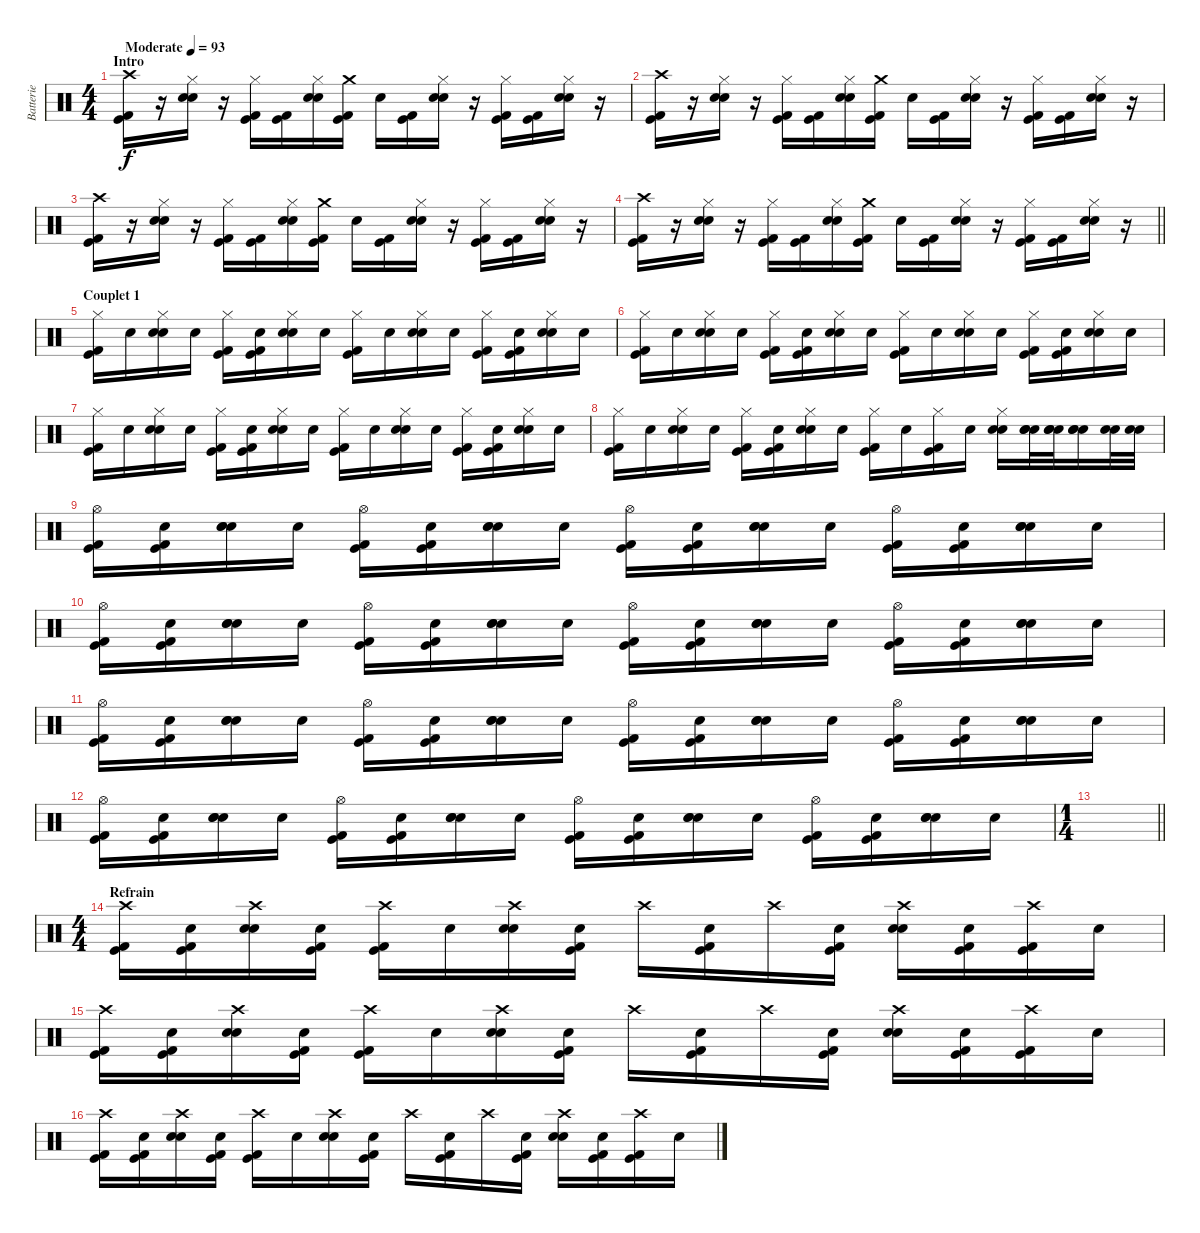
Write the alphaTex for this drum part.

\track ("Batterie" "Batterie") {instrument percussion}
\staff {score}
\articulation defaults
\ts (4 4)
\section ("" "Intro")
\tempo (93 "Moderate")
\clef neutral
\ks c
("Crash high (hit)" "Kick (hit)" "Kick (hit) 2").16{dy f} r.16 ("Hi-Hat (closed)" "Electric Snare (hit)" "Snare (hit) 2").16 r.16 ("Hi-Hat (closed)" "Kick (hit)" "Kick (hit) 2").16 ("Kick (hit)" "Kick (hit) 2").16 ("Hi-Hat (closed)" "Electric Snare (hit)" "Snare (hit) 2").16 ("Crash medium (hit)" "Kick (hit)" "Kick (hit) 2").16 "Snare (hit)".16 ("Kick (hit)" "Kick (hit) 2").16 ("Hi-Hat (closed)" "Electric Snare (hit)" "Snare (hit) 2").16 r.16 ("Hi-Hat (closed)" "Kick (hit)" "Kick (hit) 2").16 ("Kick (hit)" "Kick (hit) 2").16 ("Hi-Hat (closed)" "Electric Snare (hit)" "Snare (hit) 2").16 r.16 |
("Crash high (hit)" "Kick (hit)" "Kick (hit) 2").16 r.16 ("Hi-Hat (closed)" "Electric Snare (hit)" "Snare (hit) 2").16 r.16 ("Hi-Hat (closed)" "Kick (hit)" "Kick (hit) 2").16 ("Kick (hit)" "Kick (hit) 2").16 ("Hi-Hat (closed)" "Electric Snare (hit)" "Snare (hit) 2").16 ("Crash medium (hit)" "Kick (hit)" "Kick (hit) 2").16 "Snare (hit)".16 ("Kick (hit)" "Kick (hit) 2").16 ("Hi-Hat (closed)" "Electric Snare (hit)" "Snare (hit) 2").16 r.16 ("Hi-Hat (closed)" "Kick (hit)" "Kick (hit) 2").16 ("Kick (hit)" "Kick (hit) 2").16 ("Hi-Hat (closed)" "Electric Snare (hit)" "Snare (hit) 2").16 r.16 |
("Crash high (hit)" "Kick (hit)" "Kick (hit) 2").16 r.16 ("Hi-Hat (closed)" "Electric Snare (hit)" "Snare (hit) 2").16 r.16 ("Hi-Hat (closed)" "Kick (hit)" "Kick (hit) 2").16 ("Kick (hit)" "Kick (hit) 2").16 ("Hi-Hat (closed)" "Electric Snare (hit)" "Snare (hit) 2").16 ("Crash medium (hit)" "Kick (hit)" "Kick (hit) 2").16 "Snare (hit)".16 ("Kick (hit)" "Kick (hit) 2").16 ("Hi-Hat (closed)" "Electric Snare (hit)" "Snare (hit) 2").16 r.16 ("Hi-Hat (closed)" "Kick (hit)" "Kick (hit) 2").16 ("Kick (hit)" "Kick (hit) 2").16 ("Hi-Hat (closed)" "Electric Snare (hit)" "Snare (hit) 2").16 r.16 |
\barLineRight lightlight
("Crash high (hit)" "Kick (hit)" "Kick (hit) 2").16 r.16 ("Hi-Hat (closed)" "Electric Snare (hit)" "Snare (hit) 2").16 r.16 ("Hi-Hat (closed)" "Kick (hit)" "Kick (hit) 2").16 ("Kick (hit)" "Kick (hit) 2").16 ("Hi-Hat (closed)" "Electric Snare (hit)" "Snare (hit) 2").16 ("Crash medium (hit)" "Kick (hit)" "Kick (hit) 2").16 "Snare (hit)".16 ("Kick (hit)" "Kick (hit) 2").16 ("Hi-Hat (closed)" "Electric Snare (hit)" "Snare (hit) 2").16 r.16 ("Hi-Hat (closed)" "Kick (hit)" "Kick (hit) 2").16 ("Kick (hit)" "Kick (hit) 2").16 ("Hi-Hat (closed)" "Electric Snare (hit)" "Snare (hit) 2").16 r.16 |
\section ("" "Couplet 1")
("Hi-Hat (closed)" "Kick (hit)" "Kick (hit) 2").16 "Snare (hit)".16 ("Hi-Hat (closed)" "Electric Snare (hit)" "Snare (hit) 2").16 "Snare (hit)".16 ("Hi-Hat (closed)" "Kick (hit)" "Kick (hit) 2").16 ("Snare (hit)" "Kick (hit)" "Kick (hit) 2").16 ("Hi-Hat (closed)" "Electric Snare (hit)" "Snare (hit) 2").16 "Snare (hit)".16 ("Hi-Hat (closed)" "Kick (hit)" "Kick (hit) 2").16 "Snare (hit)".16 ("Hi-Hat (closed)" "Electric Snare (hit)" "Snare (hit) 2").16 "Snare (hit)".16 ("Hi-Hat (closed)" "Kick (hit)" "Kick (hit) 2").16 ("Snare (hit)" "Kick (hit)" "Kick (hit) 2").16 ("Hi-Hat (closed)" "Electric Snare (hit)" "Snare (hit) 2").16 "Snare (hit)".16 |
("Hi-Hat (closed)" "Kick (hit)" "Kick (hit) 2").16 "Snare (hit)".16 ("Hi-Hat (closed)" "Electric Snare (hit)" "Snare (hit) 2").16 "Snare (hit)".16 ("Hi-Hat (closed)" "Kick (hit)" "Kick (hit) 2").16 ("Snare (hit)" "Kick (hit)" "Kick (hit) 2").16 ("Hi-Hat (closed)" "Electric Snare (hit)" "Snare (hit) 2").16 "Snare (hit)".16 ("Hi-Hat (closed)" "Kick (hit)" "Kick (hit) 2").16 "Snare (hit)".16 ("Hi-Hat (closed)" "Electric Snare (hit)" "Snare (hit) 2").16 "Snare (hit)".16 ("Hi-Hat (closed)" "Kick (hit)" "Kick (hit) 2").16 ("Snare (hit)" "Kick (hit)" "Kick (hit) 2").16 ("Hi-Hat (closed)" "Electric Snare (hit)" "Snare (hit) 2").16 "Snare (hit)".16 |
("Hi-Hat (closed)" "Kick (hit)" "Kick (hit) 2").16 "Snare (hit)".16 ("Hi-Hat (closed)" "Electric Snare (hit)" "Snare (hit) 2").16 "Snare (hit)".16 ("Hi-Hat (closed)" "Kick (hit)" "Kick (hit) 2").16 ("Snare (hit)" "Kick (hit)" "Kick (hit) 2").16 ("Hi-Hat (closed)" "Electric Snare (hit)" "Snare (hit) 2").16 "Snare (hit)".16 ("Hi-Hat (closed)" "Kick (hit)" "Kick (hit) 2").16 "Snare (hit)".16 ("Hi-Hat (closed)" "Electric Snare (hit)" "Snare (hit) 2").16 "Snare (hit)".16 ("Hi-Hat (closed)" "Kick (hit)" "Kick (hit) 2").16 ("Snare (hit)" "Kick (hit)" "Kick (hit) 2").16 ("Hi-Hat (closed)" "Electric Snare (hit)" "Snare (hit) 2").16 "Snare (hit)".16 |
("Hi-Hat (closed)" "Kick (hit)" "Kick (hit) 2").16 "Snare (hit)".16 ("Hi-Hat (closed)" "Electric Snare (hit)" "Snare (hit) 2").16 "Snare (hit)".16 ("Hi-Hat (closed)" "Kick (hit)" "Kick (hit) 2").16 ("Snare (hit)" "Kick (hit)" "Kick (hit) 2").16 ("Hi-Hat (closed)" "Electric Snare (hit)" "Snare (hit) 2").16 "Snare (hit)".16 ("Hi-Hat (closed)" "Kick (hit)" "Kick (hit) 2").16 "Snare (hit)".16 ("Hi-Hat (closed)" "Kick (hit)" "Kick (hit) 2").16 "Snare (hit)".16 ("Hi-Hat (closed)" "Electric Snare (hit)" "Snare (hit) 2").16 ("Snare (hit)" "Electric Snare (hit)" "Snare (hit) 2").32 ("Snare (hit)" "Electric Snare (hit)" "Snare (hit) 2").32 ("Snare (hit)" "Electric Snare (hit)" "Snare (hit) 2").16 ("Electric Snare (hit)" "Snare (hit) 2").32 ("Electric Snare (hit)" "Snare (hit) 2").32 |
("Hi-Hat (open)" "Kick (hit)" "Kick (hit) 2").16 ("Snare (hit)" "Kick (hit)" "Kick (hit) 2").16 ("Snare (hit)" "Electric Snare (hit)" "Snare (hit) 2").16 "Snare (hit)".16 ("Hi-Hat (open)" "Kick (hit)" "Kick (hit) 2").16 ("Snare (hit)" "Kick (hit)" "Kick (hit) 2").16 ("Snare (hit)" "Electric Snare (hit)" "Snare (hit) 2").16 "Snare (hit)".16 ("Hi-Hat (open)" "Kick (hit)" "Kick (hit) 2").16 ("Snare (hit)" "Kick (hit)" "Kick (hit) 2").16 ("Snare (hit)" "Electric Snare (hit)" "Snare (hit) 2").16 "Snare (hit)".16 ("Hi-Hat (open)" "Kick (hit)" "Kick (hit) 2").16 ("Snare (hit)" "Kick (hit)" "Kick (hit) 2").16 ("Snare (hit)" "Electric Snare (hit)" "Snare (hit) 2").16 "Snare (hit)".16 |
("Hi-Hat (open)" "Kick (hit)" "Kick (hit) 2").16 ("Snare (hit)" "Kick (hit)" "Kick (hit) 2").16 ("Snare (hit)" "Electric Snare (hit)" "Snare (hit) 2").16 "Snare (hit)".16 ("Hi-Hat (open)" "Kick (hit)" "Kick (hit) 2").16 ("Snare (hit)" "Kick (hit)" "Kick (hit) 2").16 ("Snare (hit)" "Electric Snare (hit)" "Snare (hit) 2").16 "Snare (hit)".16 ("Hi-Hat (open)" "Kick (hit)" "Kick (hit) 2").16 ("Snare (hit)" "Kick (hit)" "Kick (hit) 2").16 ("Snare (hit)" "Electric Snare (hit)" "Snare (hit) 2").16 "Snare (hit)".16 ("Hi-Hat (open)" "Kick (hit)" "Kick (hit) 2").16 ("Snare (hit)" "Kick (hit)" "Kick (hit) 2").16 ("Snare (hit)" "Electric Snare (hit)" "Snare (hit) 2").16 "Snare (hit)".16 |
("Hi-Hat (open)" "Kick (hit)" "Kick (hit) 2").16 ("Snare (hit)" "Kick (hit)" "Kick (hit) 2").16 ("Snare (hit)" "Electric Snare (hit)" "Snare (hit) 2").16 "Snare (hit)".16 ("Hi-Hat (open)" "Kick (hit)" "Kick (hit) 2").16 ("Snare (hit)" "Kick (hit)" "Kick (hit) 2").16 ("Snare (hit)" "Electric Snare (hit)" "Snare (hit) 2").16 "Snare (hit)".16 ("Hi-Hat (open)" "Kick (hit)" "Kick (hit) 2").16 ("Snare (hit)" "Kick (hit)" "Kick (hit) 2").16 ("Snare (hit)" "Electric Snare (hit)" "Snare (hit) 2").16 "Snare (hit)".16 ("Hi-Hat (open)" "Kick (hit)" "Kick (hit) 2").16 ("Snare (hit)" "Kick (hit)" "Kick (hit) 2").16 ("Snare (hit)" "Electric Snare (hit)" "Snare (hit) 2").16 "Snare (hit)".16 |
("Hi-Hat (open)" "Kick (hit)" "Kick (hit) 2").16 ("Snare (hit)" "Kick (hit)" "Kick (hit) 2").16 ("Snare (hit)" "Electric Snare (hit)" "Snare (hit) 2").16 "Snare (hit)".16 ("Hi-Hat (open)" "Kick (hit)" "Kick (hit) 2").16 ("Snare (hit)" "Kick (hit)" "Kick (hit) 2").16 ("Snare (hit)" "Electric Snare (hit)" "Snare (hit) 2").16 "Snare (hit)".16 ("Hi-Hat (open)" "Kick (hit)" "Kick (hit) 2").16 ("Snare (hit)" "Kick (hit)" "Kick (hit) 2").16 ("Snare (hit)" "Electric Snare (hit)" "Snare (hit) 2").16 "Snare (hit)".16 ("Hi-Hat (open)" "Kick (hit)" "Kick (hit) 2").16 ("Snare (hit)" "Kick (hit)" "Kick (hit) 2").16 ("Snare (hit)" "Electric Snare (hit)" "Snare (hit) 2").16 "Snare (hit)".16 |
\ts (1 4)
\barLineRight lightlight
|
\ts (4 4)
\section ("" "Refrain")
("Crash high (hit)" "Kick (hit)" "Kick (hit) 2").16 ("Snare (hit)" "Kick (hit)" "Kick (hit) 2").16 ("Crash high (hit)" "Electric Snare (hit)" "Snare (hit) 2").16 ("Snare (hit)" "Kick (hit)" "Kick (hit) 2").16 ("Crash high (hit)" "Kick (hit)" "Kick (hit) 2").16 "Snare (hit)".16 ("Crash high (hit)" "Electric Snare (hit)" "Snare (hit) 2").16 ("Snare (hit)" "Kick (hit)" "Kick (hit) 2").16 "Crash high (hit)".16 ("Snare (hit)" "Kick (hit)" "Kick (hit) 2").16 "Crash high (hit)".16 ("Snare (hit)" "Kick (hit)" "Kick (hit) 2").16 ("Crash high (hit)" "Electric Snare (hit)" "Snare (hit) 2").16 ("Snare (hit)" "Kick (hit)" "Kick (hit) 2").16 ("Crash high (hit)" "Kick (hit)" "Kick (hit) 2").16 "Snare (hit)".16 |
("Crash high (hit)" "Kick (hit)" "Kick (hit) 2").16 ("Snare (hit)" "Kick (hit)" "Kick (hit) 2").16 ("Crash high (hit)" "Electric Snare (hit)" "Snare (hit) 2").16 ("Snare (hit)" "Kick (hit)" "Kick (hit) 2").16 ("Crash high (hit)" "Kick (hit)" "Kick (hit) 2").16 "Snare (hit)".16 ("Crash high (hit)" "Electric Snare (hit)" "Snare (hit) 2").16 ("Snare (hit)" "Kick (hit)" "Kick (hit) 2").16 "Crash high (hit)".16 ("Snare (hit)" "Kick (hit)" "Kick (hit) 2").16 "Crash high (hit)".16 ("Snare (hit)" "Kick (hit)" "Kick (hit) 2").16 ("Crash high (hit)" "Electric Snare (hit)" "Snare (hit) 2").16 ("Snare (hit)" "Kick (hit)" "Kick (hit) 2").16 ("Crash high (hit)" "Kick (hit)" "Kick (hit) 2").16 "Snare (hit)".16 |
("Crash high (hit)" "Kick (hit)" "Kick (hit) 2").16 ("Snare (hit)" "Kick (hit)" "Kick (hit) 2").16 ("Crash high (hit)" "Electric Snare (hit)" "Snare (hit) 2").16 ("Snare (hit)" "Kick (hit)" "Kick (hit) 2").16 ("Crash high (hit)" "Kick (hit)" "Kick (hit) 2").16 "Snare (hit)".16 ("Crash high (hit)" "Electric Snare (hit)" "Snare (hit) 2").16 ("Snare (hit)" "Kick (hit)" "Kick (hit) 2").16 "Crash high (hit)".16 ("Snare (hit)" "Kick (hit)" "Kick (hit) 2").16 "Crash high (hit)".16 ("Snare (hit)" "Kick (hit)" "Kick (hit) 2").16 ("Crash high (hit)" "Electric Snare (hit)" "Snare (hit) 2").16 ("Snare (hit)" "Kick (hit)" "Kick (hit) 2").16 ("Crash high (hit)" "Kick (hit)" "Kick (hit) 2").16 "Snare (hit)".16
